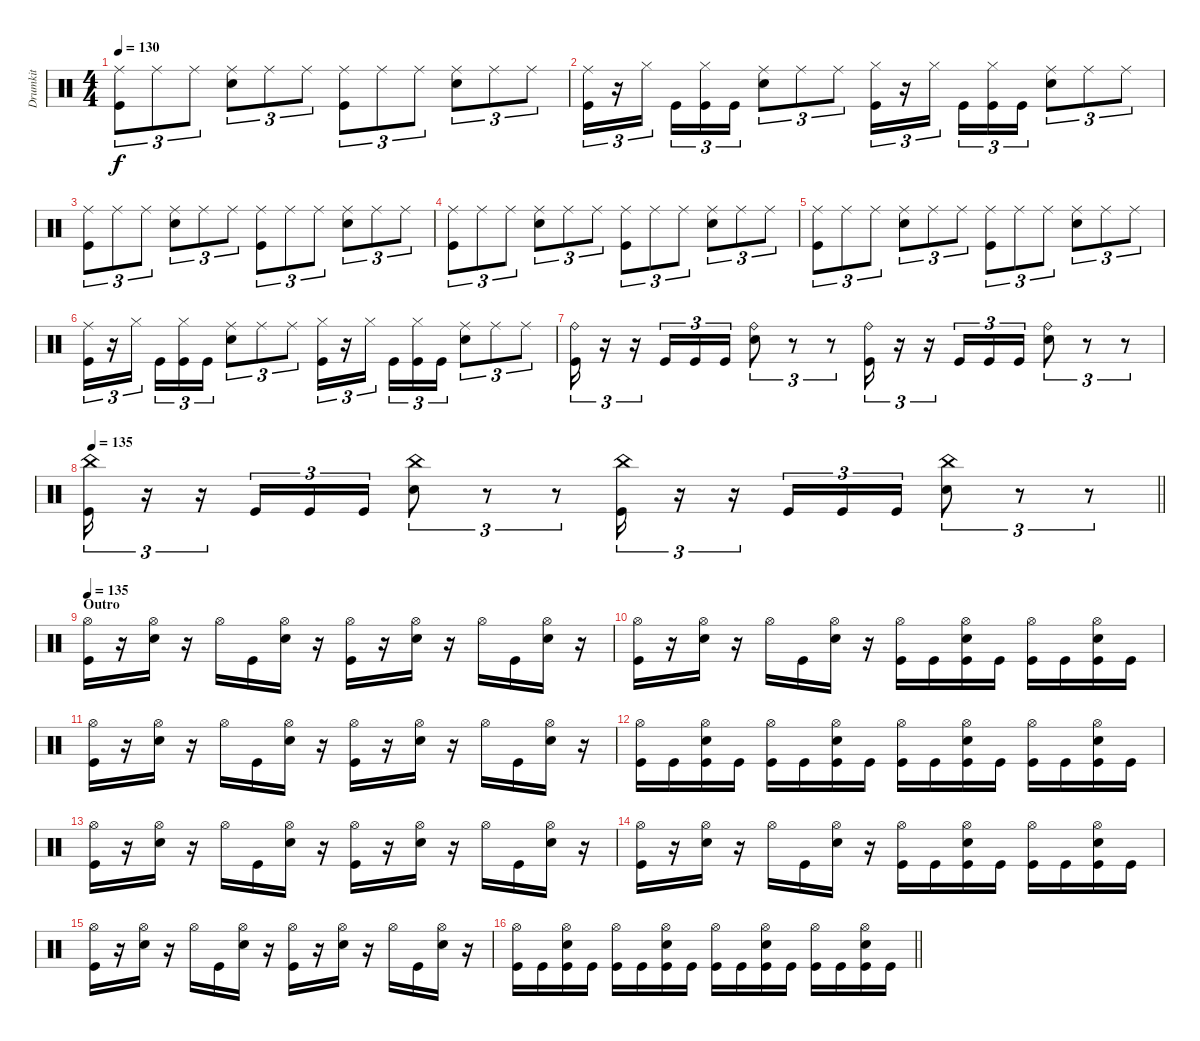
\track ("Drumkit" "Drumkit") {instrument percussion}
\staff {score}
\articulation defaults
\ts (4 4)
\tempo 130
\clef neutral
\ks c
("Kick (hit)" "Ride (middle)").8{tu (3 2) dy f} "Ride (middle)".8{tu (3 2)} "Ride (middle)".8{tu (3 2)} ("Snare (hit) 2" "Ride (middle)").8{tu (3 2)} "Ride (middle)".8{tu (3 2)} "Ride (middle)".8{tu (3 2)} ("Kick (hit)" "Ride (middle)").8{tu (3 2)} "Ride (middle)".8{tu (3 2)} "Ride (middle)".8{tu (3 2)} ("Snare (hit) 2" "Ride (middle)").8{tu (3 2)} "Ride (middle)".8{tu (3 2)} "Ride (middle)".8{tu (3 2)} |
("Kick (hit)" "Ride (middle)").16{tu (3 2)} r.16{tu (3 2)} "Hi-Hat (closed)".16{tu (3 2)} "Kick (hit)".16{tu (3 2)} ("Kick (hit)" "Hi-Hat (closed)").16{tu (3 2)} "Kick (hit)".16{tu (3 2)} ("Snare (hit) 2" "Ride (middle)").8{tu (3 2)} "Ride (middle)".8{tu (3 2)} "Ride (middle)".8{tu (3 2)} ("Kick (hit)" "Hi-Hat (closed)").16{tu (3 2)} r.16{tu (3 2)} "Hi-Hat (closed)".16{tu (3 2)} "Kick (hit)".16{tu (3 2)} ("Kick (hit)" "Hi-Hat (closed)").16{tu (3 2)} "Kick (hit)".16{tu (3 2)} ("Snare (hit) 2" "Ride (middle)").8{tu (3 2)} "Ride (middle)".8{tu (3 2)} "Ride (middle)".8{tu (3 2)} |
("Kick (hit)" "Ride (middle)").8{tu (3 2)} "Ride (middle)".8{tu (3 2)} "Ride (middle)".8{tu (3 2)} ("Snare (hit) 2" "Ride (middle)").8{tu (3 2)} "Ride (middle)".8{tu (3 2)} "Ride (middle)".8{tu (3 2)} ("Kick (hit)" "Ride (middle)").8{tu (3 2)} "Ride (middle)".8{tu (3 2)} "Ride (middle)".8{tu (3 2)} ("Snare (hit) 2" "Ride (middle)").8{tu (3 2)} "Ride (middle)".8{tu (3 2)} "Ride (middle)".8{tu (3 2)} |
("Kick (hit)" "Ride (middle)").8{tu (3 2)} "Ride (middle)".8{tu (3 2)} "Ride (middle)".8{tu (3 2)} ("Snare (hit) 2" "Ride (middle)").8{tu (3 2)} "Ride (middle)".8{tu (3 2)} "Ride (middle)".8{tu (3 2)} ("Kick (hit)" "Ride (middle)").8{tu (3 2)} "Ride (middle)".8{tu (3 2)} "Ride (middle)".8{tu (3 2)} ("Snare (hit) 2" "Ride (middle)").8{tu (3 2)} "Ride (middle)".8{tu (3 2)} "Ride (middle)".8{tu (3 2)} |
("Kick (hit)" "Ride (middle)").8{tu (3 2)} "Ride (middle)".8{tu (3 2)} "Ride (middle)".8{tu (3 2)} ("Snare (hit) 2" "Ride (middle)").8{tu (3 2)} "Ride (middle)".8{tu (3 2)} "Ride (middle)".8{tu (3 2)} ("Kick (hit)" "Ride (middle)").8{tu (3 2)} "Ride (middle)".8{tu (3 2)} "Ride (middle)".8{tu (3 2)} ("Snare (hit) 2" "Ride (middle)").8{tu (3 2)} "Ride (middle)".8{tu (3 2)} "Ride (middle)".8{tu (3 2)} |
("Kick (hit)" "Ride (middle)").16{tu (3 2)} r.16{tu (3 2)} "Hi-Hat (closed)".16{tu (3 2)} "Kick (hit)".16{tu (3 2)} ("Kick (hit)" "Hi-Hat (closed)").16{tu (3 2)} "Kick (hit)".16{tu (3 2)} ("Snare (hit) 2" "Ride (middle)").8{tu (3 2)} "Ride (middle)".8{tu (3 2)} "Ride (middle)".8{tu (3 2)} ("Kick (hit)" "Hi-Hat (closed)").16{tu (3 2)} r.16{tu (3 2)} "Hi-Hat (closed)".16{tu (3 2)} "Kick (hit)".16{tu (3 2)} ("Kick (hit)" "Hi-Hat (closed)").16{tu (3 2)} "Kick (hit)".16{tu (3 2)} ("Snare (hit) 2" "Ride (middle)").8{tu (3 2)} "Ride (middle)".8{tu (3 2)} "Ride (middle)".8{tu (3 2)} |
("Kick (hit)" "Ride (bell)").16{tu (3 2)} r.16{tu (3 2)} r.16{tu (3 2)} "Kick (hit)".16{tu (3 2)} "Kick (hit)".16{tu (3 2)} "Kick (hit)".16{tu (3 2)} ("Snare (hit) 2" "Ride (bell)").8{tu (3 2)} r.8{tu (3 2)} r.8{tu (3 2)} ("Kick (hit)" "Ride (bell)").16{tu (3 2)} r.16{tu (3 2)} r.16{tu (3 2)} "Kick (hit)".16{tu (3 2)} "Kick (hit)".16{tu (3 2)} "Kick (hit)".16{tu (3 2)} ("Snare (hit) 2" "Ride (bell)").8{tu (3 2)} r.8{tu (3 2)} r.8{tu (3 2)} |
\tempo 135
\barLineRight lightlight
("Kick (hit)" "China (hit)").16{tu (3 2)} r.16{tu (3 2)} r.16{tu (3 2)} "Kick (hit)".16{tu (3 2)} "Kick (hit)".16{tu (3 2)} "Kick (hit)".16{tu (3 2)} ("Snare (hit) 2" "China (hit)").8{tu (3 2)} r.8{tu (3 2)} r.8{tu (3 2)} ("Kick (hit)" "China (hit)").16{tu (3 2)} r.16{tu (3 2)} r.16{tu (3 2)} "Kick (hit)".16{tu (3 2)} "Kick (hit)".16{tu (3 2)} "Kick (hit)".16{tu (3 2)} ("Snare (hit) 2" "China (hit)").8{tu (3 2)} r.8{tu (3 2)} r.8{tu (3 2)} |
\section ("" "Outro")
\tempo 135
("Kick (hit)" "Hi-Hat (open)").16 r.16 ("Hi-Hat (open)" "Snare (hit) 2").16 r.16 "Hi-Hat (open)".16 "Kick (hit)".16 ("Hi-Hat (open)" "Snare (hit) 2").16 r.16 ("Kick (hit)" "Hi-Hat (open)").16 r.16 ("Hi-Hat (open)" "Snare (hit) 2").16 r.16 "Hi-Hat (open)".16 "Kick (hit)".16 ("Hi-Hat (open)" "Snare (hit) 2").16 r.16 |
("Kick (hit)" "Hi-Hat (open)").16 r.16 ("Hi-Hat (open)" "Snare (hit) 2").16 r.16 "Hi-Hat (open)".16 "Kick (hit)".16 ("Hi-Hat (open)" "Snare (hit) 2").16 r.16 ("Kick (hit)" "Hi-Hat (open)").16 "Kick (hit)".16 ("Hi-Hat (open)" "Snare (hit) 2" "Kick (hit)").16 "Kick (hit)".16 ("Hi-Hat (open)" "Kick (hit)").16 "Kick (hit)".16 ("Hi-Hat (open)" "Snare (hit) 2" "Kick (hit)").16 "Kick (hit)".16 |
("Kick (hit)" "Hi-Hat (open)").16 r.16 ("Hi-Hat (open)" "Snare (hit) 2").16 r.16 "Hi-Hat (open)".16 "Kick (hit)".16 ("Hi-Hat (open)" "Snare (hit) 2").16 r.16 ("Kick (hit)" "Hi-Hat (open)").16 r.16 ("Hi-Hat (open)" "Snare (hit) 2").16 r.16 "Hi-Hat (open)".16 "Kick (hit)".16 ("Hi-Hat (open)" "Snare (hit) 2").16 r.16 |
("Kick (hit)" "Hi-Hat (open)").16 "Kick (hit)".16 ("Hi-Hat (open)" "Snare (hit) 2" "Kick (hit)").16 "Kick (hit)".16 ("Hi-Hat (open)" "Kick (hit)").16 "Kick (hit)".16 ("Hi-Hat (open)" "Snare (hit) 2" "Kick (hit)").16 "Kick (hit)".16 ("Kick (hit)" "Hi-Hat (open)").16 "Kick (hit)".16 ("Hi-Hat (open)" "Snare (hit) 2" "Kick (hit)").16 "Kick (hit)".16 ("Hi-Hat (open)" "Kick (hit)").16 "Kick (hit)".16 ("Hi-Hat (open)" "Snare (hit) 2" "Kick (hit)").16 "Kick (hit)".16 |
("Kick (hit)" "Hi-Hat (open)").16 r.16 ("Hi-Hat (open)" "Snare (hit) 2").16 r.16 "Hi-Hat (open)".16 "Kick (hit)".16 ("Hi-Hat (open)" "Snare (hit) 2").16 r.16 ("Kick (hit)" "Hi-Hat (open)").16 r.16 ("Hi-Hat (open)" "Snare (hit) 2").16 r.16 "Hi-Hat (open)".16 "Kick (hit)".16 ("Hi-Hat (open)" "Snare (hit) 2").16 r.16 |
("Kick (hit)" "Hi-Hat (open)").16 r.16 ("Hi-Hat (open)" "Snare (hit) 2").16 r.16 "Hi-Hat (open)".16 "Kick (hit)".16 ("Hi-Hat (open)" "Snare (hit) 2").16 r.16 ("Kick (hit)" "Hi-Hat (open)").16 "Kick (hit)".16 ("Hi-Hat (open)" "Snare (hit) 2" "Kick (hit)").16 "Kick (hit)".16 ("Hi-Hat (open)" "Kick (hit)").16 "Kick (hit)".16 ("Hi-Hat (open)" "Snare (hit) 2" "Kick (hit)").16 "Kick (hit)".16 |
("Kick (hit)" "Hi-Hat (open)").16 r.16 ("Hi-Hat (open)" "Snare (hit) 2").16 r.16 "Hi-Hat (open)".16 "Kick (hit)".16 ("Hi-Hat (open)" "Snare (hit) 2").16 r.16 ("Kick (hit)" "Hi-Hat (open)").16 r.16 ("Hi-Hat (open)" "Snare (hit) 2").16 r.16 "Hi-Hat (open)".16 "Kick (hit)".16 ("Hi-Hat (open)" "Snare (hit) 2").16 r.16 |
\barLineRight lightlight
("Kick (hit)" "Hi-Hat (open)").16 "Kick (hit)".16 ("Hi-Hat (open)" "Snare (hit) 2" "Kick (hit)").16 "Kick (hit)".16 ("Hi-Hat (open)" "Kick (hit)").16 "Kick (hit)".16 ("Hi-Hat (open)" "Snare (hit) 2" "Kick (hit)").16 "Kick (hit)".16 ("Kick (hit)" "Hi-Hat (open)").16 "Kick (hit)".16 ("Hi-Hat (open)" "Snare (hit) 2" "Kick (hit)").16 "Kick (hit)".16 ("Hi-Hat (open)" "Kick (hit)").16 "Kick (hit)".16 ("Hi-Hat (open)" "Snare (hit) 2" "Kick (hit)").16 "Kick (hit)".16
